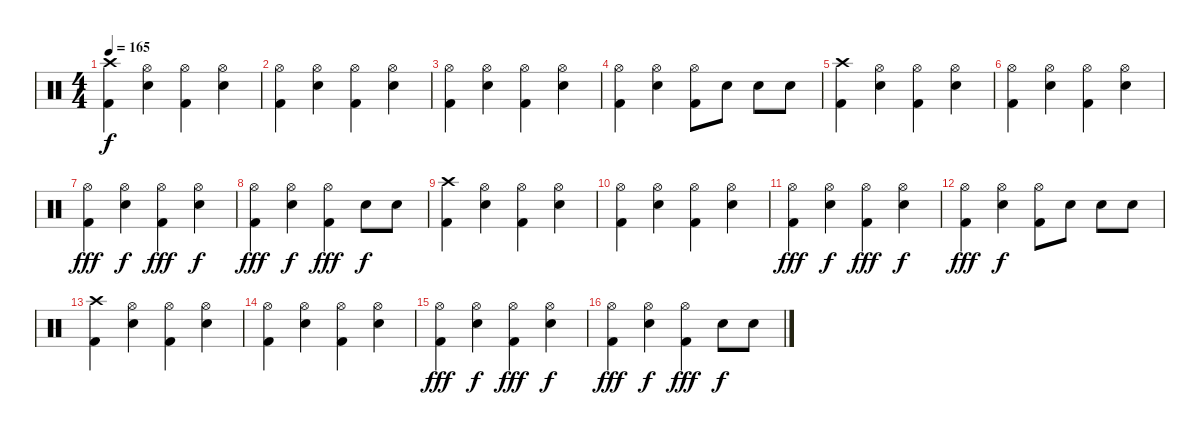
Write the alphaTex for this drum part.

\track "" {instrument percussion}
\staff {score}
\articulation defaults
\ts (4 4)
\tempo 165
\clef neutral
\ks c
("Kick (hit) 2" "Crash high (hit)").4{dy f} ("Electric Snare (hit)" "Hi-Hat (open)").4 ("Kick (hit) 2" "Hi-Hat (open)").4 ("Electric Snare (hit)" "Hi-Hat (open)").4 |
("Hi-Hat (open)" "Kick (hit) 2").4 ("Hi-Hat (open)" "Electric Snare (hit)").4 ("Hi-Hat (open)" "Kick (hit) 2").4 ("Hi-Hat (open)" "Electric Snare (hit)").4 |
("Hi-Hat (open)" "Kick (hit) 2").4 ("Hi-Hat (open)" "Electric Snare (hit)").4 ("Hi-Hat (open)" "Kick (hit) 2").4 ("Hi-Hat (open)" "Electric Snare (hit)").4 |
("Hi-Hat (open)" "Kick (hit) 2").4 ("Hi-Hat (open)" "Electric Snare (hit)").4 ("Kick (hit) 2" "Hi-Hat (open)").8 "Electric Snare (hit)".8 "Electric Snare (hit)".8 "Electric Snare (hit)".8 |
("Kick (hit) 2" "Crash high (hit)").4 ("Electric Snare (hit)" "Hi-Hat (open)").4 ("Kick (hit) 2" "Hi-Hat (open)").4 ("Electric Snare (hit)" "Hi-Hat (open)").4 |
("Hi-Hat (open)" "Kick (hit) 2").4 ("Hi-Hat (open)" "Electric Snare (hit)").4 ("Hi-Hat (open)" "Kick (hit) 2").4 ("Hi-Hat (open)" "Electric Snare (hit)").4 |
("Hi-Hat (open)" "Kick (hit) 2").4{dy fff} ("Hi-Hat (open)" "Electric Snare (hit)").4{dy f} ("Hi-Hat (open)" "Kick (hit) 2").4{dy fff} ("Hi-Hat (open)" "Electric Snare (hit)").4{dy f} |
("Hi-Hat (open)" "Kick (hit) 2").4{dy fff} ("Hi-Hat (open)" "Electric Snare (hit)").4{dy f} ("Hi-Hat (open)" "Kick (hit) 2").4{dy fff} "Electric Snare (hit)".8{dy f} "Electric Snare (hit)".8 |
("Kick (hit) 2" "Crash high (hit)").4 ("Electric Snare (hit)" "Hi-Hat (open)").4 ("Kick (hit) 2" "Hi-Hat (open)").4 ("Electric Snare (hit)" "Hi-Hat (open)").4 |
("Hi-Hat (open)" "Kick (hit) 2").4 ("Hi-Hat (open)" "Electric Snare (hit)").4 ("Hi-Hat (open)" "Kick (hit) 2").4 ("Hi-Hat (open)" "Electric Snare (hit)").4 |
("Hi-Hat (open)" "Kick (hit) 2").4{dy fff} ("Hi-Hat (open)" "Electric Snare (hit)").4{dy f} ("Hi-Hat (open)" "Kick (hit) 2").4{dy fff} ("Hi-Hat (open)" "Electric Snare (hit)").4{dy f} |
("Hi-Hat (open)" "Kick (hit) 2").4{dy fff} ("Hi-Hat (open)" "Electric Snare (hit)").4{dy f} ("Kick (hit) 2" "Hi-Hat (open)").8 "Electric Snare (hit)".8 "Electric Snare (hit)".8 "Electric Snare (hit)".8 |
("Kick (hit) 2" "Crash high (hit)").4 ("Electric Snare (hit)" "Hi-Hat (open)").4 ("Kick (hit) 2" "Hi-Hat (open)").4 ("Electric Snare (hit)" "Hi-Hat (open)").4 |
("Hi-Hat (open)" "Kick (hit) 2").4 ("Hi-Hat (open)" "Electric Snare (hit)").4 ("Hi-Hat (open)" "Kick (hit) 2").4 ("Hi-Hat (open)" "Electric Snare (hit)").4 |
("Hi-Hat (open)" "Kick (hit) 2").4{dy fff} ("Hi-Hat (open)" "Electric Snare (hit)").4{dy f} ("Hi-Hat (open)" "Kick (hit) 2").4{dy fff} ("Hi-Hat (open)" "Electric Snare (hit)").4{dy f} |
("Hi-Hat (open)" "Kick (hit) 2").4{dy fff} ("Hi-Hat (open)" "Electric Snare (hit)").4{dy f} ("Hi-Hat (open)" "Kick (hit) 2").4{dy fff} "Electric Snare (hit)".8{dy f} "Electric Snare (hit)".8
